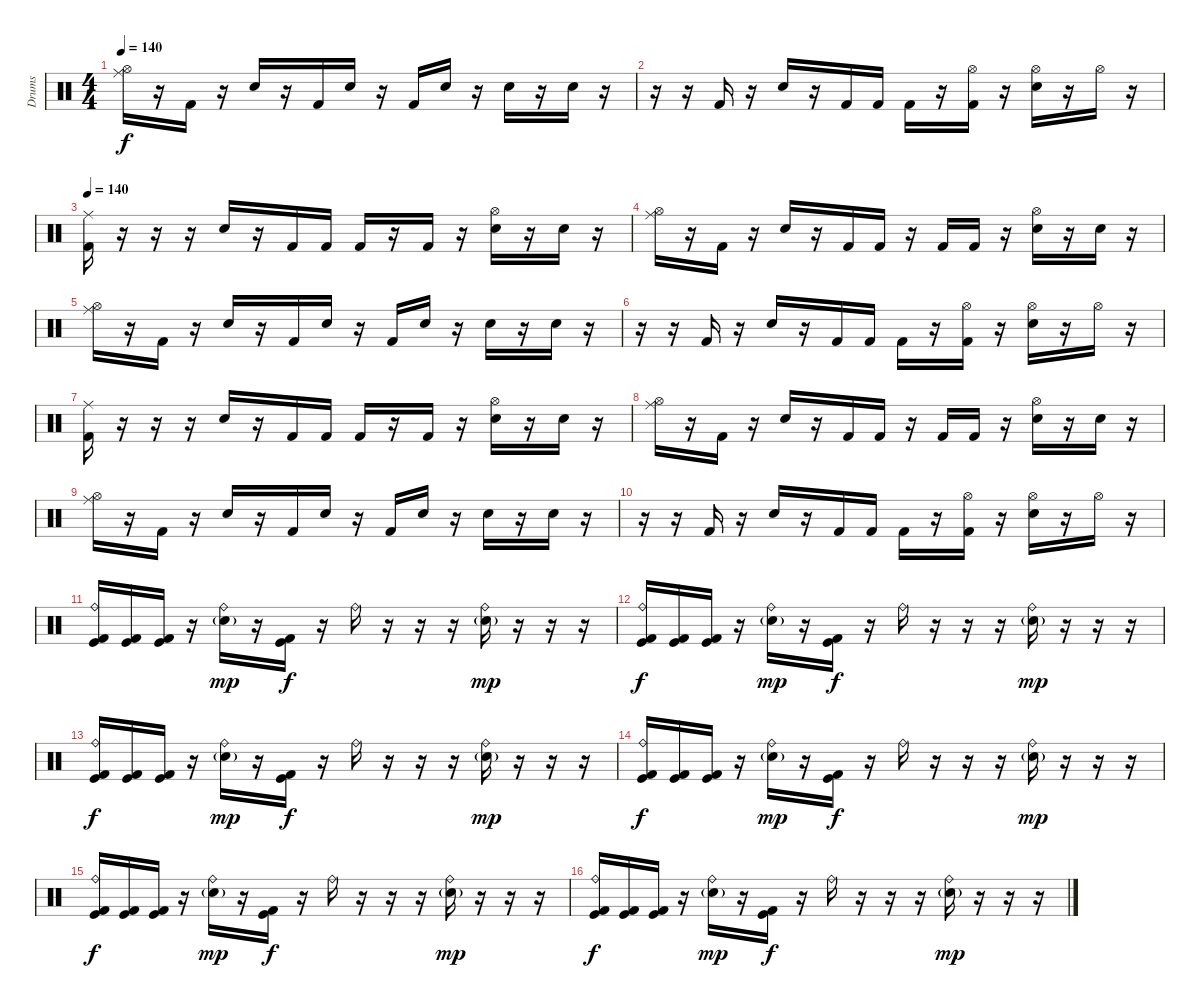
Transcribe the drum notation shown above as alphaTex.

\track ("Drums" "Drums") {instrument percussion}
\staff {score}
\articulation defaults
\ts (4 4)
\tempo 140
\clef neutral
\ks c
("Ride (middle)" "Hi-Hat (open)").16{dy f} r.16 "Kick (hit) 2".16 r.16 "Electric Snare (hit)".16 r.16 "Kick (hit) 2".16 "Electric Snare (hit)".16 r.16 "Kick (hit) 2".16 "Electric Snare (hit)".16 r.16 "Electric Snare (hit)".16 r.16 "Electric Snare (hit)".16 r.16 |
r.16 r.16 "Kick (hit) 2".16 r.16 "Electric Snare (hit)".16 r.16 "Kick (hit) 2".16 "Kick (hit) 2".16 "Kick (hit) 2".16 r.16 ("Hi-Hat (open)" "Kick (hit) 2").16 r.16 ("Hi-Hat (open)" "Electric Snare (hit)").16 r.16 "Hi-Hat (open)".16 r.16 |
\tempo 140
("Ride (middle)" "Kick (hit) 2").16 r.16 r.16 r.16 "Electric Snare (hit)".16 r.16 "Kick (hit) 2".16 "Kick (hit) 2".16 "Kick (hit) 2".16 r.16 "Kick (hit) 2".16 r.16 ("Hi-Hat (open)" "Electric Snare (hit)").16 r.16 "Electric Snare (hit)".16 r.16 |
("Ride (middle)" "Hi-Hat (open)").16 r.16 "Kick (hit) 2".16 r.16 "Electric Snare (hit)".16 r.16 "Kick (hit) 2".16 "Kick (hit) 2".16 r.16 "Kick (hit) 2".16 "Kick (hit) 2".16 r.16 ("Hi-Hat (open)" "Electric Snare (hit)").16 r.16 "Electric Snare (hit)".16 r.16 |
("Ride (middle)" "Hi-Hat (open)").16 r.16 "Kick (hit) 2".16 r.16 "Electric Snare (hit)".16 r.16 "Kick (hit) 2".16 "Electric Snare (hit)".16 r.16 "Kick (hit) 2".16 "Electric Snare (hit)".16 r.16 "Electric Snare (hit)".16 r.16 "Electric Snare (hit)".16 r.16 |
r.16 r.16 "Kick (hit) 2".16 r.16 "Electric Snare (hit)".16 r.16 "Kick (hit) 2".16 "Kick (hit) 2".16 "Kick (hit) 2".16 r.16 ("Hi-Hat (open)" "Kick (hit) 2").16 r.16 ("Hi-Hat (open)" "Electric Snare (hit)").16 r.16 "Hi-Hat (open)".16 r.16 |
("Ride (middle)" "Kick (hit) 2").16 r.16 r.16 r.16 "Electric Snare (hit)".16 r.16 "Kick (hit) 2".16 "Kick (hit) 2".16 "Kick (hit) 2".16 r.16 "Kick (hit) 2".16 r.16 ("Hi-Hat (open)" "Electric Snare (hit)").16 r.16 "Electric Snare (hit)".16 r.16 |
("Ride (middle)" "Hi-Hat (open)").16 r.16 "Kick (hit) 2".16 r.16 "Electric Snare (hit)".16 r.16 "Kick (hit) 2".16 "Kick (hit) 2".16 r.16 "Kick (hit) 2".16 "Kick (hit) 2".16 r.16 ("Hi-Hat (open)" "Electric Snare (hit)").16 r.16 "Electric Snare (hit)".16 r.16 |
("Ride (middle)" "Hi-Hat (open)").16 r.16 "Kick (hit) 2".16 r.16 "Electric Snare (hit)".16 r.16 "Kick (hit) 2".16 "Electric Snare (hit)".16 r.16 "Kick (hit) 2".16 "Electric Snare (hit)".16 r.16 "Electric Snare (hit)".16 r.16 "Electric Snare (hit)".16 r.16 |
r.16 r.16 "Kick (hit) 2".16 r.16 "Electric Snare (hit)".16 r.16 "Kick (hit) 2".16 "Kick (hit) 2".16 "Kick (hit) 2".16 r.16 ("Hi-Hat (open)" "Kick (hit) 2").16 r.16 ("Hi-Hat (open)" "Electric Snare (hit)").16 r.16 "Hi-Hat (open)".16 r.16 |
("Ride (bell)" "Kick (hit)" "Kick (hit) 2").16 ("Kick (hit)" "Kick (hit) 2").16 ("Kick (hit)" "Kick (hit) 2").16 r.16 ("Ride (bell)" "Electric Snare (hit)"{g}).16{dy mp} r.16 ("Kick (hit)" "Kick (hit) 2").16{dy f} r.16 "Ride (bell)".16 r.16 r.16 r.16 ("Ride (bell)" "Electric Snare (hit)"{g}).16{dy mp} r.16 r.16 r.16 |
("Ride (bell)" "Kick (hit)" "Kick (hit) 2").16{dy f} ("Kick (hit)" "Kick (hit) 2").16 ("Kick (hit)" "Kick (hit) 2").16 r.16 ("Ride (bell)" "Electric Snare (hit)"{g}).16{dy mp} r.16 ("Kick (hit)" "Kick (hit) 2").16{dy f} r.16 "Ride (bell)".16 r.16 r.16 r.16 ("Ride (bell)" "Electric Snare (hit)"{g}).16{dy mp} r.16 r.16 r.16 |
("Ride (bell)" "Kick (hit)" "Kick (hit) 2").16{dy f} ("Kick (hit)" "Kick (hit) 2").16 ("Kick (hit)" "Kick (hit) 2").16 r.16 ("Ride (bell)" "Electric Snare (hit)"{g}).16{dy mp} r.16 ("Kick (hit)" "Kick (hit) 2").16{dy f} r.16 "Ride (bell)".16 r.16 r.16 r.16 ("Ride (bell)" "Electric Snare (hit)"{g}).16{dy mp} r.16 r.16 r.16 |
("Ride (bell)" "Kick (hit)" "Kick (hit) 2").16{dy f} ("Kick (hit)" "Kick (hit) 2").16 ("Kick (hit)" "Kick (hit) 2").16 r.16 ("Ride (bell)" "Electric Snare (hit)"{g}).16{dy mp} r.16 ("Kick (hit)" "Kick (hit) 2").16{dy f} r.16 "Ride (bell)".16 r.16 r.16 r.16 ("Ride (bell)" "Electric Snare (hit)"{g}).16{dy mp} r.16 r.16 r.16 |
("Ride (bell)" "Kick (hit)" "Kick (hit) 2").16{dy f} ("Kick (hit)" "Kick (hit) 2").16 ("Kick (hit)" "Kick (hit) 2").16 r.16 ("Ride (bell)" "Electric Snare (hit)"{g}).16{dy mp} r.16 ("Kick (hit)" "Kick (hit) 2").16{dy f} r.16 "Ride (bell)".16 r.16 r.16 r.16 ("Ride (bell)" "Electric Snare (hit)"{g}).16{dy mp} r.16 r.16 r.16 |
("Ride (bell)" "Kick (hit)" "Kick (hit) 2").16{dy f} ("Kick (hit)" "Kick (hit) 2").16 ("Kick (hit)" "Kick (hit) 2").16 r.16 ("Ride (bell)" "Electric Snare (hit)"{g}).16{dy mp} r.16 ("Kick (hit)" "Kick (hit) 2").16{dy f} r.16 "Ride (bell)".16 r.16 r.16 r.16 ("Ride (bell)" "Electric Snare (hit)"{g}).16{dy mp} r.16 r.16 r.16
